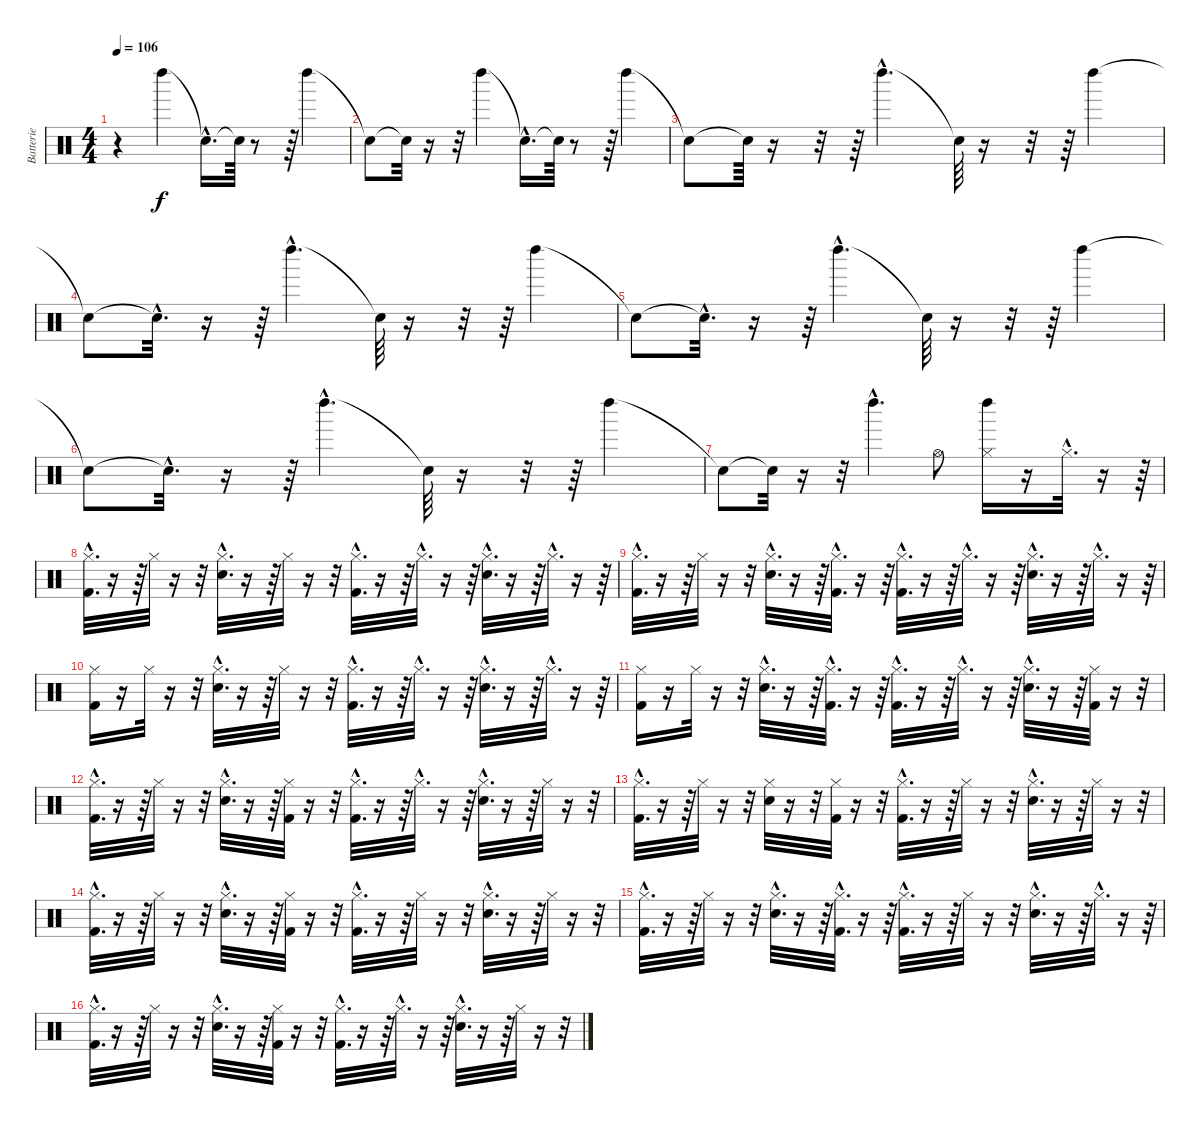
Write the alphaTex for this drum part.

\track ("Batterie" "Batterie") {instrument percussion}
\staff {score}
\articulation defaults
\ts (4 4)
\tempo 106
\clef neutral
\ks c
r.4{dy f} "Left Maraca (hit)".4 "Snare (hit)"{hac t}.16{d} "Snare (hit)"{t}.64 r.8 r.64 "Left Maraca (hit)".4 |
"Snare (hit)"{t}.8 "Snare (hit)"{t}.32 r.16 r.32 "Left Maraca (hit)".4 "Snare (hit)"{hac t}.16{d} "Snare (hit)"{t}.64 r.8 r.64 "Left Maraca (hit)".4 |
"Snare (hit)"{t}.8 "Snare (hit)"{t}.64 r.16 r.32 r.64 "Left Maraca (hit)"{hac}.4{d} "Snare (hit)"{t}.64 r.16 r.32 r.64 "Left Maraca (hit)".4 |
"Snare (hit)"{t}.8 "Snare (hit)"{hac t}.32{d} r.16 r.64 "Left Maraca (hit)"{hac}.4{d} "Snare (hit)"{t}.64 r.16 r.32 r.64 "Left Maraca (hit)".4 |
"Snare (hit)"{t}.8 "Snare (hit)"{hac t}.32{d} r.16 r.64 "Left Maraca (hit)"{hac}.4{d} "Snare (hit)"{t}.64 r.16 r.32 r.64 "Left Maraca (hit)".4 |
"Snare (hit)"{t}.8 "Snare (hit)"{hac t}.32{d} r.16 r.64 "Left Maraca (hit)"{hac}.4{d} "Snare (hit)"{t}.64 r.16 r.32 r.64 "Left Maraca (hit)".4 |
"Snare (hit)"{t}.8 "Snare (hit)"{t}.32 r.16 r.32 "Left Maraca (hit)"{hac}.4{d} "Hi-Hat (open)".8 ("Hi-Hat (closed)" "Left Maraca (hit)").16 r.16 "Hi-Hat (closed)"{hac}.32{d} r.16 r.64 |
("Hi-Hat (closed)"{hac} "Kick (hit) 2"{hac}).32{d} r.16 r.64 "Hi-Hat (closed)".32 r.16 r.32 ("Hi-Hat (closed)"{hac} "Snare (hit) 2"{hac}).32{d} r.16 r.64 "Hi-Hat (closed)".32 r.16 r.32 ("Hi-Hat (closed)"{hac} "Kick (hit) 2"{hac}).32{d} r.16 r.64 "Hi-Hat (closed)"{hac}.32{d} r.16 r.64 ("Hi-Hat (closed)"{hac} "Snare (hit) 2"{hac}).32{d} r.16 r.64 "Hi-Hat (closed)"{hac}.32{d} r.16 r.64 |
("Hi-Hat (closed)"{hac} "Kick (hit) 2"{hac}).32{d} r.16 r.64 "Hi-Hat (closed)".32 r.16 r.32 ("Hi-Hat (closed)"{hac} "Snare (hit) 2"{hac}).32{d} r.16 r.64 ("Hi-Hat (closed)"{hac} "Kick (hit) 2"{hac}).32{d} r.16 r.64 ("Hi-Hat (closed)"{hac} "Kick (hit) 2"{hac}).32{d} r.16 r.64 "Hi-Hat (closed)"{hac}.32{d} r.16 r.64 ("Hi-Hat (closed)"{hac} "Snare (hit) 2"{hac}).32{d} r.16 r.64 "Hi-Hat (closed)"{hac}.32{d} r.16 r.64 |
("Hi-Hat (closed)" "Kick (hit) 2").16 r.16 "Hi-Hat (closed)".32 r.16 r.32 ("Hi-Hat (closed)"{hac} "Snare (hit) 2"{hac}).32{d} r.16 r.64 "Hi-Hat (closed)".32 r.16 r.32 ("Hi-Hat (closed)"{hac} "Kick (hit) 2"{hac}).32{d} r.16 r.64 "Hi-Hat (closed)"{hac}.32{d} r.16 r.64 ("Hi-Hat (closed)"{hac} "Snare (hit) 2"{hac}).32{d} r.16 r.64 "Hi-Hat (closed)"{hac}.32{d} r.16 r.64 |
("Hi-Hat (closed)" "Kick (hit) 2").16 r.16 "Hi-Hat (closed)".32 r.16 r.32 ("Hi-Hat (closed)"{hac} "Snare (hit) 2"{hac}).32{d} r.16 r.64 ("Hi-Hat (closed)"{hac} "Kick (hit) 2"{hac}).32{d} r.16 r.64 ("Hi-Hat (closed)"{hac} "Kick (hit) 2"{hac}).32{d} r.16 r.64 "Hi-Hat (closed)"{hac}.32{d} r.16 r.64 ("Hi-Hat (closed)"{hac} "Snare (hit) 2"{hac}).32{d} r.16 r.64 ("Hi-Hat (closed)" "Kick (hit) 2").32 r.16 r.32 |
("Hi-Hat (closed)"{hac} "Kick (hit) 2"{hac}).32{d} r.16 r.64 "Hi-Hat (closed)".32 r.16 r.32 ("Hi-Hat (closed)"{hac} "Snare (hit) 2"{hac}).32{d} r.16 r.64 ("Hi-Hat (closed)" "Kick (hit) 2").32 r.16 r.32 ("Hi-Hat (closed)"{hac} "Kick (hit) 2"{hac}).32{d} r.16 r.64 "Hi-Hat (closed)"{hac}.32{d} r.16 r.64 ("Hi-Hat (closed)"{hac} "Snare (hit) 2"{hac}).32{d} r.16 r.64 "Hi-Hat (closed)".32 r.16 r.32 |
("Hi-Hat (closed)"{hac} "Kick (hit) 2"{hac}).32{d} r.16 r.64 "Hi-Hat (closed)".32 r.16 r.32 ("Hi-Hat (closed)" "Snare (hit) 2").32 r.16 r.32 ("Hi-Hat (closed)" "Kick (hit) 2").32 r.16 r.32 ("Hi-Hat (closed)"{hac} "Kick (hit) 2"{hac}).32{d} r.16 r.64 "Hi-Hat (closed)".32 r.16 r.32 ("Hi-Hat (closed)"{hac} "Snare (hit) 2"{hac}).32{d} r.16 r.64 "Hi-Hat (closed)".32 r.16 r.32 |
("Hi-Hat (closed)"{hac} "Kick (hit) 2"{hac}).32{d} r.16 r.64 "Hi-Hat (closed)".32 r.16 r.32 ("Hi-Hat (closed)"{hac} "Snare (hit) 2"{hac}).32{d} r.16 r.64 ("Hi-Hat (closed)" "Kick (hit) 2").32 r.16 r.32 ("Hi-Hat (closed)"{hac} "Kick (hit) 2"{hac}).32{d} r.16 r.64 "Hi-Hat (closed)".32 r.16 r.32 ("Hi-Hat (closed)"{hac} "Snare (hit) 2"{hac}).32{d} r.16 r.64 "Hi-Hat (closed)".32 r.16 r.32 |
("Hi-Hat (closed)"{hac} "Kick (hit) 2"{hac}).32{d} r.16 r.64 "Hi-Hat (closed)".32 r.16 r.32 ("Hi-Hat (closed)"{hac} "Snare (hit) 2"{hac}).32{d} r.16 r.64 ("Hi-Hat (closed)"{hac} "Kick (hit) 2"{hac}).32{d} r.16 r.64 ("Hi-Hat (closed)"{hac} "Kick (hit) 2"{hac}).32{d} r.16 r.64 "Hi-Hat (closed)".32 r.16 r.32 ("Hi-Hat (closed)"{hac} "Snare (hit) 2"{hac}).32{d} r.16 r.64 "Hi-Hat (closed)"{hac}.32{d} r.16 r.64 |
("Hi-Hat (closed)"{hac} "Kick (hit) 2"{hac}).32{d} r.16 r.64 "Hi-Hat (closed)".32 r.16 r.32 ("Hi-Hat (closed)"{hac} "Snare (hit) 2"{hac}).32{d} r.16 r.64 ("Hi-Hat (closed)" "Kick (hit) 2").32 r.16 r.32 ("Hi-Hat (closed)"{hac} "Kick (hit) 2"{hac}).32{d} r.16 r.64 "Hi-Hat (closed)"{hac}.32{d} r.16 r.64 ("Hi-Hat (closed)"{hac} "Snare (hit) 2"{hac}).32{d} r.16 r.64 "Hi-Hat (closed)".32 r.16 r.32
